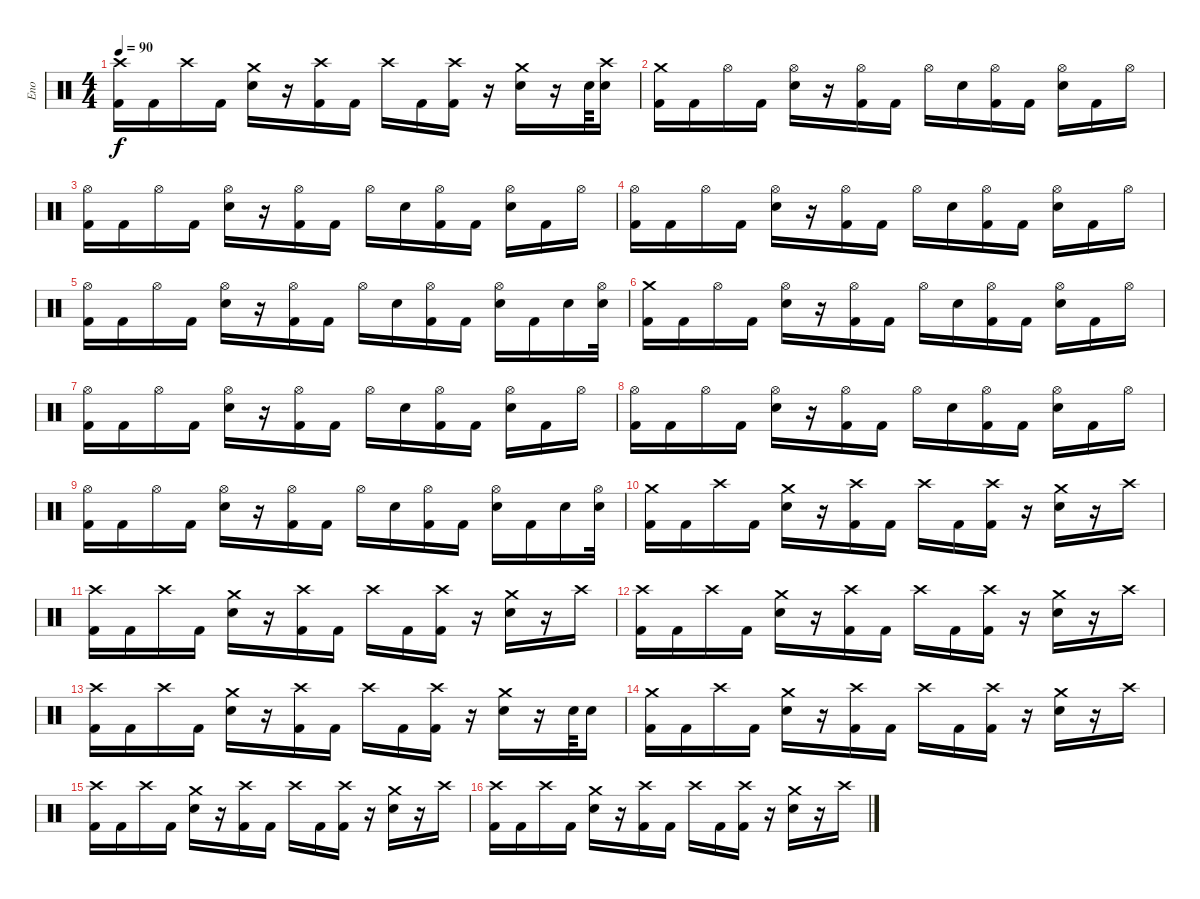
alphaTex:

\track ("Eno" "Eno") {instrument percussion}
\staff {score}
\articulation defaults
\ts (4 4)
\tempo 90
\clef neutral
\ks c
("Crash high (hit)" "Kick (hit) 2").16{dy f} "Kick (hit) 2".16 "Crash high (hit)".16 "Kick (hit) 2".16 ("Crash medium (hit)" "Snare (hit) 2").16 r.16 ("Crash high (hit)" "Kick (hit) 2").16 "Kick (hit) 2".16 "Crash high (hit)".16 "Kick (hit) 2".16 ("Crash high (hit)" "Kick (hit) 2").16 r.16 ("Crash medium (hit)" "Snare (hit) 2").16 r.16 "Snare (hit) 2".64 ("Crash high (hit)" "Snare (hit) 2").16 |
("Crash medium (hit)" "Kick (hit) 2").16 "Kick (hit) 2".16 "Hi-Hat (open)".16 "Kick (hit) 2".16 ("Hi-Hat (open)" "Snare (hit) 2").16 r.16 ("Hi-Hat (open)" "Kick (hit) 2").16 "Kick (hit) 2".16 "Hi-Hat (open)".16 "Snare (hit) 2".16 ("Hi-Hat (open)" "Kick (hit) 2").16 "Kick (hit) 2".16 ("Hi-Hat (open)" "Snare (hit) 2").16 "Kick (hit) 2".16 "Hi-Hat (open)".16 |
("Hi-Hat (open)" "Kick (hit) 2").16 "Kick (hit) 2".16 "Hi-Hat (open)".16 "Kick (hit) 2".16 ("Hi-Hat (open)" "Snare (hit) 2").16 r.16 ("Hi-Hat (open)" "Kick (hit) 2").16 "Kick (hit) 2".16 "Hi-Hat (open)".16 "Snare (hit) 2".16 ("Hi-Hat (open)" "Kick (hit) 2").16 "Kick (hit) 2".16 ("Hi-Hat (open)" "Snare (hit) 2").16 "Kick (hit) 2".16 "Hi-Hat (open)".16 |
("Hi-Hat (open)" "Kick (hit) 2").16 "Kick (hit) 2".16 "Hi-Hat (open)".16 "Kick (hit) 2".16 ("Hi-Hat (open)" "Snare (hit) 2").16 r.16 ("Hi-Hat (open)" "Kick (hit) 2").16 "Kick (hit) 2".16 "Hi-Hat (open)".16 "Snare (hit) 2".16 ("Hi-Hat (open)" "Kick (hit) 2").16 "Kick (hit) 2".16 ("Hi-Hat (open)" "Snare (hit) 2").16 "Kick (hit) 2".16 "Hi-Hat (open)".16 |
("Hi-Hat (open)" "Kick (hit) 2").16 "Kick (hit) 2".16 "Hi-Hat (open)".16 "Kick (hit) 2".16 ("Hi-Hat (open)" "Snare (hit) 2").16 r.16 ("Hi-Hat (open)" "Kick (hit) 2").16 "Kick (hit) 2".16 "Hi-Hat (open)".16 "Snare (hit) 2".16 ("Hi-Hat (open)" "Kick (hit) 2").16 "Kick (hit) 2".16 ("Hi-Hat (open)" "Snare (hit) 2").16 "Kick (hit) 2".16 "Snare (hit) 2".16 ("Hi-Hat (open)" "Snare (hit) 2").32 |
("Crash medium (hit)" "Kick (hit) 2").16 "Kick (hit) 2".16 "Hi-Hat (open)".16 "Kick (hit) 2".16 ("Hi-Hat (open)" "Snare (hit) 2").16 r.16 ("Hi-Hat (open)" "Kick (hit) 2").16 "Kick (hit) 2".16 "Hi-Hat (open)".16 "Snare (hit) 2".16 ("Hi-Hat (open)" "Kick (hit) 2").16 "Kick (hit) 2".16 ("Hi-Hat (open)" "Snare (hit) 2").16 "Kick (hit) 2".16 "Hi-Hat (open)".16 |
("Hi-Hat (open)" "Kick (hit) 2").16 "Kick (hit) 2".16 "Hi-Hat (open)".16 "Kick (hit) 2".16 ("Hi-Hat (open)" "Snare (hit) 2").16 r.16 ("Hi-Hat (open)" "Kick (hit) 2").16 "Kick (hit) 2".16 "Hi-Hat (open)".16 "Snare (hit) 2".16 ("Hi-Hat (open)" "Kick (hit) 2").16 "Kick (hit) 2".16 ("Hi-Hat (open)" "Snare (hit) 2").16 "Kick (hit) 2".16 "Hi-Hat (open)".16 |
("Hi-Hat (open)" "Kick (hit) 2").16 "Kick (hit) 2".16 "Hi-Hat (open)".16 "Kick (hit) 2".16 ("Hi-Hat (open)" "Snare (hit) 2").16 r.16 ("Hi-Hat (open)" "Kick (hit) 2").16 "Kick (hit) 2".16 "Hi-Hat (open)".16 "Snare (hit) 2".16 ("Hi-Hat (open)" "Kick (hit) 2").16 "Kick (hit) 2".16 ("Hi-Hat (open)" "Snare (hit) 2").16 "Kick (hit) 2".16 "Hi-Hat (open)".16 |
("Hi-Hat (open)" "Kick (hit) 2").16 "Kick (hit) 2".16 "Hi-Hat (open)".16 "Kick (hit) 2".16 ("Hi-Hat (open)" "Snare (hit) 2").16 r.16 ("Hi-Hat (open)" "Kick (hit) 2").16 "Kick (hit) 2".16 "Hi-Hat (open)".16 "Snare (hit) 2".16 ("Hi-Hat (open)" "Kick (hit) 2").16 "Kick (hit) 2".16 ("Hi-Hat (open)" "Snare (hit) 2").16 "Kick (hit) 2".16 "Snare (hit) 2".16 ("Hi-Hat (open)" "Snare (hit) 2").32 |
("Crash medium (hit)" "Kick (hit) 2").16 "Kick (hit) 2".16 "Crash high (hit)".16 "Kick (hit) 2".16 ("Crash medium (hit)" "Snare (hit) 2").16 r.16 ("Crash high (hit)" "Kick (hit) 2").16 "Kick (hit) 2".16 "Crash high (hit)".16 "Kick (hit) 2".16 ("Crash high (hit)" "Kick (hit) 2").16 r.16 ("Crash medium (hit)" "Snare (hit) 2").16 r.16 "Crash high (hit)".16 |
("Crash high (hit)" "Kick (hit) 2").16 "Kick (hit) 2".16 "Crash high (hit)".16 "Kick (hit) 2".16 ("Crash medium (hit)" "Snare (hit) 2").16 r.16 ("Crash high (hit)" "Kick (hit) 2").16 "Kick (hit) 2".16 "Crash high (hit)".16 "Kick (hit) 2".16 ("Crash high (hit)" "Kick (hit) 2").16 r.16 ("Crash medium (hit)" "Snare (hit) 2").16 r.16 "Crash high (hit)".16 |
("Crash high (hit)" "Kick (hit) 2").16 "Kick (hit) 2".16 "Crash high (hit)".16 "Kick (hit) 2".16 ("Crash medium (hit)" "Snare (hit) 2").16 r.16 ("Crash high (hit)" "Kick (hit) 2").16 "Kick (hit) 2".16 "Crash high (hit)".16 "Kick (hit) 2".16 ("Crash high (hit)" "Kick (hit) 2").16 r.16 ("Crash medium (hit)" "Snare (hit) 2").16 r.16 "Crash high (hit)".16 |
("Crash high (hit)" "Kick (hit) 2").16 "Kick (hit) 2".16 "Crash high (hit)".16 "Kick (hit) 2".16 ("Crash medium (hit)" "Snare (hit) 2").16 r.16 ("Crash high (hit)" "Kick (hit) 2").16 "Kick (hit) 2".16 "Crash high (hit)".16 "Kick (hit) 2".16 ("Crash high (hit)" "Kick (hit) 2").16 r.16 ("Crash medium (hit)" "Snare (hit) 2").16 r.16 "Snare (hit) 2".64 "Snare (hit) 2".16 |
("Crash medium (hit)" "Kick (hit) 2").16 "Kick (hit) 2".16 "Crash high (hit)".16 "Kick (hit) 2".16 ("Crash medium (hit)" "Snare (hit) 2").16 r.16 ("Crash high (hit)" "Kick (hit) 2").16 "Kick (hit) 2".16 "Crash high (hit)".16 "Kick (hit) 2".16 ("Crash high (hit)" "Kick (hit) 2").16 r.16 ("Crash medium (hit)" "Snare (hit) 2").16 r.16 "Crash high (hit)".16 |
("Crash high (hit)" "Kick (hit) 2").16 "Kick (hit) 2".16 "Crash high (hit)".16 "Kick (hit) 2".16 ("Crash medium (hit)" "Snare (hit) 2").16 r.16 ("Crash high (hit)" "Kick (hit) 2").16 "Kick (hit) 2".16 "Crash high (hit)".16 "Kick (hit) 2".16 ("Crash high (hit)" "Kick (hit) 2").16 r.16 ("Crash medium (hit)" "Snare (hit) 2").16 r.16 "Crash high (hit)".16 |
("Crash high (hit)" "Kick (hit) 2").16 "Kick (hit) 2".16 "Crash high (hit)".16 "Kick (hit) 2".16 ("Crash medium (hit)" "Snare (hit) 2").16 r.16 ("Crash high (hit)" "Kick (hit) 2").16 "Kick (hit) 2".16 "Crash high (hit)".16 "Kick (hit) 2".16 ("Crash high (hit)" "Kick (hit) 2").16 r.16 ("Crash medium (hit)" "Snare (hit) 2").16 r.16 "Crash high (hit)".16
